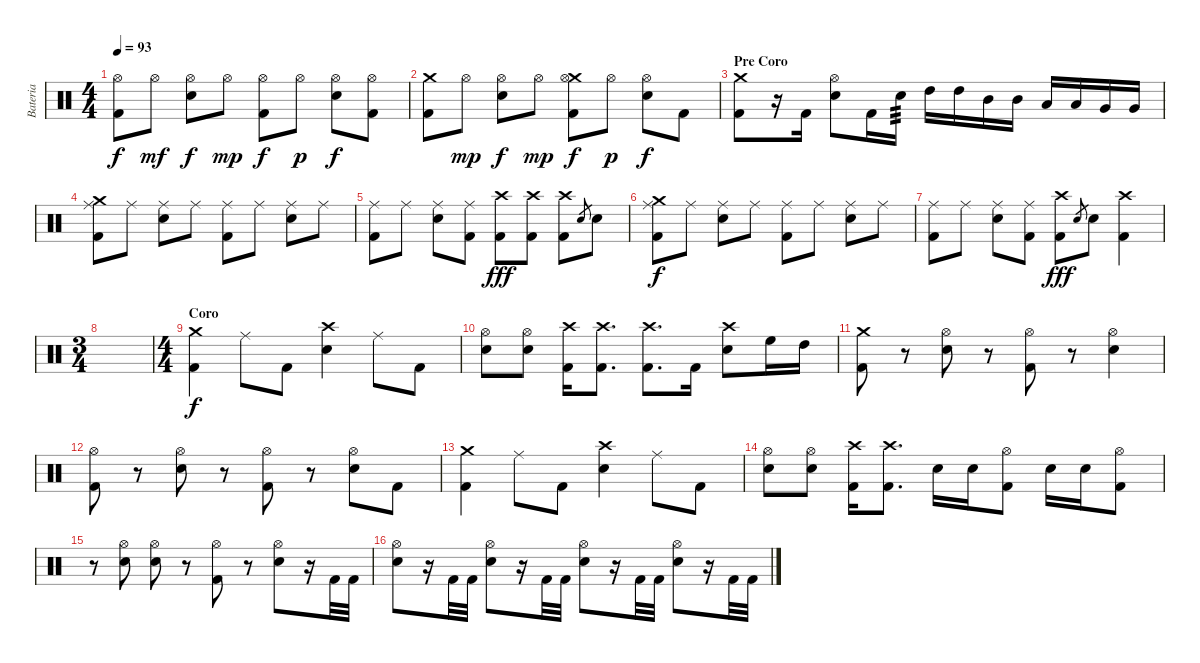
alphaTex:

\track ("Bateria" "Bateria") {instrument percussion}
\staff {score}
\articulation defaults
\ts (4 4)
\tempo 93
\clef neutral
\ks c
("Hi-Hat (open)" "Kick (hit) 2").8{dy f} "Hi-Hat (open)".8{dy mf} ("Snare (hit) 2" "Hi-Hat (open)").8{dy f} "Hi-Hat (open)".8{dy mp} ("Kick (hit) 2" "Hi-Hat (open)").8{dy f} "Hi-Hat (open)".8{dy p} ("Snare (hit) 2" "Hi-Hat (open)").8{dy f} ("Kick (hit) 2" "Hi-Hat (open)").8 |
("Crash medium (hit)" "Kick (hit) 2").8 "Hi-Hat (open)".8{dy mp} ("Snare (hit) 2" "Hi-Hat (open)").8{dy f} "Hi-Hat (open)".8{dy mp} ("Crash medium (hit)" "Kick (hit) 2" "Hi-Hat (open)").8{dy f} "Hi-Hat (open)".8{dy p} ("Snare (hit) 2" "Hi-Hat (open)").8{dy f} "Kick (hit) 2".8 |
\section ("" "Pre Coro")
("Crash medium (hit)" "Kick (hit) 2").8 r.16 "Kick (hit) 2".16 ("Snare (hit) 2" "Hi-Hat (open)").8 "Kick (hit) 2".16 "Snare (hit) 2".16{tp 3} "High Tom (hit)".16 "High Tom (hit)".16 "Mid Tom (hit)".16 "Mid Tom (hit)".16 "Low Tom (hit)".16 "Low Tom (hit)".16 "Very Low Tom (hit)".16 "Very Low Tom (hit)".16 |
("Crash medium (hit)" "Kick (hit) 2" "Ride (middle)").8{volume 16} "Ride (middle)".8 ("Ride (middle)" "Snare (hit) 2").8 "Ride (middle)".8 ("Ride (middle)" "Kick (hit) 2").8 "Ride (middle)".8 ("Ride (middle)" "Snare (hit) 2").8 "Ride (middle)".8 |
("Kick (hit) 2" "Ride (middle)").8 "Ride (middle)".8 ("Ride (middle)" "Snare (hit) 2").8 ("Ride (middle)" "Kick (hit) 2").8 ("Crash high (hit)" "Kick (hit) 2").8{dy fff} ("Crash high (hit)" "Kick (hit) 2").8 ("Crash high (hit)" "Kick (hit) 2").8 "Snare (hit) 2".8{gr} "Snare (hit) 2".8 |
("Crash medium (hit)" "Kick (hit) 2" "Ride (middle)").8{dy f volume 16} "Ride (middle)".8 ("Ride (middle)" "Snare (hit) 2").8 "Ride (middle)".8 ("Ride (middle)" "Kick (hit) 2").8 "Ride (middle)".8 ("Ride (middle)" "Snare (hit) 2").8 "Ride (middle)".8 |
("Kick (hit) 2" "Ride (middle)").8 "Ride (middle)".8 ("Ride (middle)" "Snare (hit) 2").8 ("Ride (middle)" "Kick (hit) 2").8 ("Crash high (hit)" "Kick (hit) 2").8{dy fff} "Snare (hit) 2".8{gr} "Snare (hit) 2".8 ("Crash high (hit)" "Kick (hit) 2").4 |
\ts (3 4)
|
\ts (4 4)
\section ("" "Coro")
("Kick (hit) 2" "Crash medium (hit)").4{dy f} "Ride (middle)".8 "Kick (hit) 2".8 ("Snare (hit) 2" "Crash high (hit)").4 "Ride (middle)".8 "Kick (hit) 2".8 |
("Hi-Hat (open)" "Snare (hit) 2").8 ("Hi-Hat (open)" "Snare (hit) 2").8 ("Kick (hit) 2" "Crash high (hit)").16 ("Kick (hit) 2" "Crash high (hit)").8{d} ("Kick (hit) 2" "Crash high (hit)").8{d} "Kick (hit) 2".16 ("Snare (hit) 2" "Crash high (hit)").8 "High Floor Tom (hit)".16 "High Tom (hit)".16 |
("Crash medium (hit)" "Kick (hit) 2").8 r.8 ("Snare (hit) 2" "Hi-Hat (open)").8 r.8 ("Kick (hit) 2" "Hi-Hat (open)").8 r.8 ("Snare (hit) 2" "Hi-Hat (open)").4 |
("Hi-Hat (open)" "Kick (hit) 2").8 r.8 ("Snare (hit) 2" "Hi-Hat (open)").8 r.8 ("Kick (hit) 2" "Hi-Hat (open)").8 r.8 ("Snare (hit) 2" "Hi-Hat (open)").8 "Kick (hit) 2".8 |
("Kick (hit) 2" "Crash medium (hit)").4 "Ride (middle)".8 "Kick (hit) 2".8 ("Snare (hit) 2" "Crash high (hit)").4 "Ride (middle)".8 "Kick (hit) 2".8 |
("Hi-Hat (open)" "Snare (hit) 2").8 ("Hi-Hat (open)" "Snare (hit) 2").8 ("Kick (hit) 2" "Crash high (hit)").16 ("Kick (hit) 2" "Crash high (hit)").8{d} "Snare (hit) 2".16 "Snare (hit) 2".16 ("Kick (hit) 2" "Hi-Hat (open)").8 "Snare (hit) 2".16 "Snare (hit) 2".16 ("Kick (hit) 2" "Hi-Hat (open)").8 |
r.8 ("Hi-Hat (open)" "Snare (hit) 2").8 ("Snare (hit) 2" "Hi-Hat (open)").8 r.8 ("Kick (hit) 2" "Hi-Hat (open)").8 r.8 ("Snare (hit) 2" "Hi-Hat (open)").8 r.16 "Kick (hit) 2".32 "Kick (hit) 2".32 |
("Hi-Hat (open)" "Snare (hit) 2").8 r.16 "Kick (hit) 2".32 "Kick (hit) 2".32 ("Snare (hit) 2" "Hi-Hat (open)").8 r.16 "Kick (hit) 2".32 "Kick (hit) 2".32 ("Snare (hit) 2" "Hi-Hat (open)").8 r.16 "Kick (hit) 2".32 "Kick (hit) 2".32 ("Snare (hit) 2" "Hi-Hat (open)").8 r.16 "Kick (hit) 2".32 "Kick (hit) 2".32
